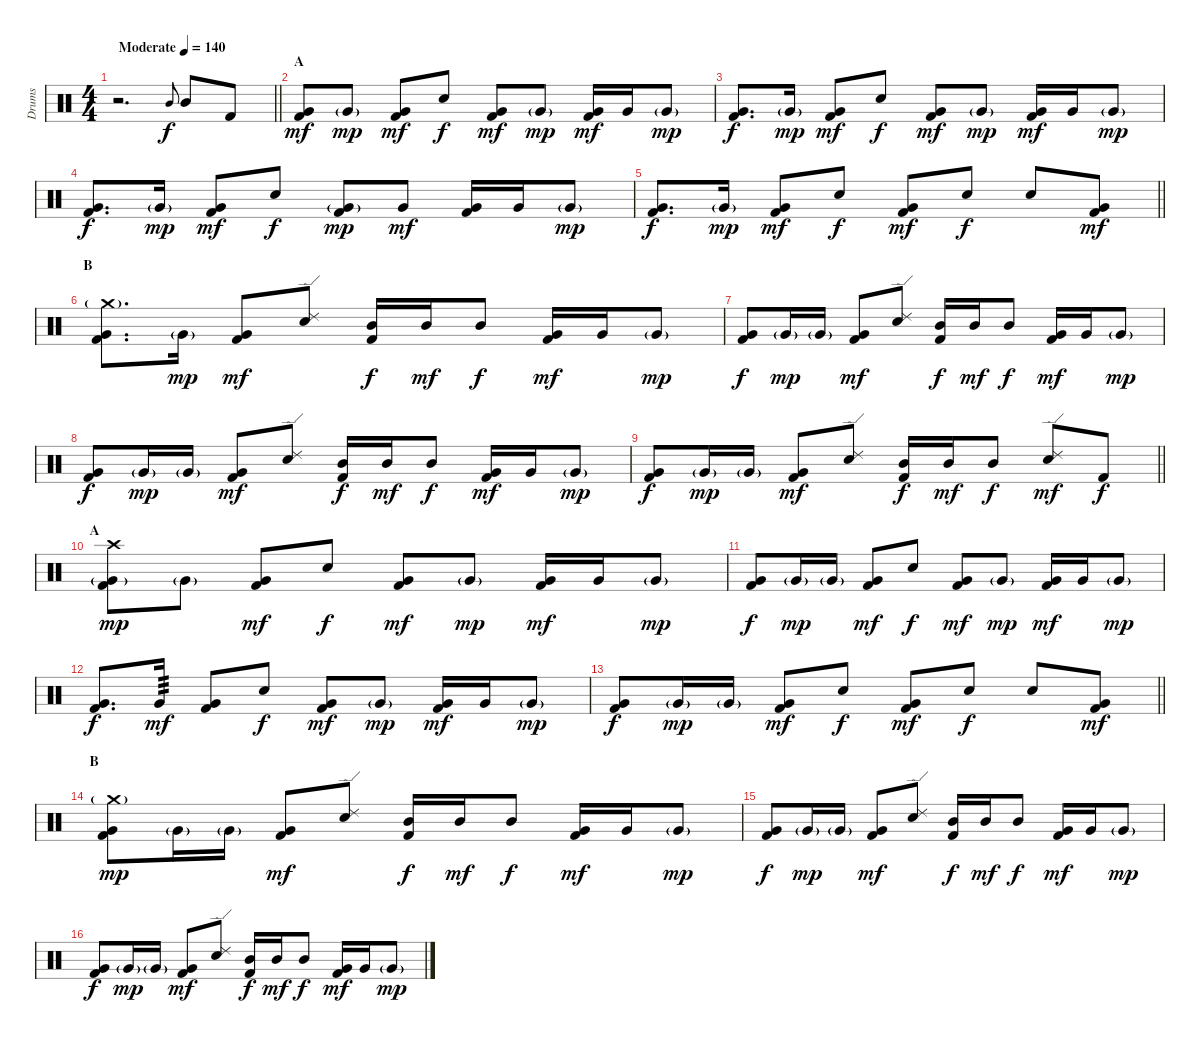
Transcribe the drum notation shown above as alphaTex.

\track ("Drums" "Drums") {instrument percussion}
\staff {score}
\articulation defaults
\ts (4 4)
\tempo (140 "Moderate")
\clef neutral
\barLineRight lightlight
\ks c
r.2{d dy f} "Mid Tom (hit)".8{gr onbeat} "Mid Tom (hit)".8 "Kick (hit) 2".8 |
\section ("" "A")
("Very Low Tom (hit)" "Kick (hit) 2").8{dy mf} "Very Low Tom (hit)"{g}.8{dy mp} ("Very Low Tom (hit)" "Kick (hit) 2").8{dy mf} "Snare (hit) 2".8{dy f} ("Very Low Tom (hit)" "Kick (hit) 2").8{dy mf} "Very Low Tom (hit)"{g}.8{dy mp} ("Very Low Tom (hit)" "Kick (hit) 2").16{dy mf} "Very Low Tom (hit)".16 "Very Low Tom (hit)"{g}.8{dy mp} |
("Very Low Tom (hit)" "Kick (hit) 2").8{d dy f} "Very Low Tom (hit)"{g}.16{dy mp} ("Very Low Tom (hit)" "Kick (hit) 2").8{dy mf} "Snare (hit) 2".8{dy f} ("Very Low Tom (hit)" "Kick (hit) 2").8{dy mf} "Very Low Tom (hit)"{g}.8{dy mp} ("Very Low Tom (hit)" "Kick (hit) 2").16{dy mf} "Very Low Tom (hit)".16 "Very Low Tom (hit)"{g}.8{dy mp} |
("Very Low Tom (hit)" "Kick (hit) 2").8{d dy f} "Very Low Tom (hit)"{g}.16{dy mp} ("Very Low Tom (hit)" "Kick (hit) 2").8{dy mf} "Snare (hit) 2".8{dy f} ("Very Low Tom (hit)"{g} "Kick (hit) 2").8{dy mp} "Very Low Tom (hit)".8{dy mf} ("Very Low Tom (hit)" "Kick (hit) 2").16 "Very Low Tom (hit)".16 "Very Low Tom (hit)"{g}.8{dy mp} |
\barLineRight lightlight
("Very Low Tom (hit)" "Kick (hit) 2").8{d dy f} "Very Low Tom (hit)"{g}.16{dy mp} ("Very Low Tom (hit)" "Kick (hit) 2").8{dy mf} "Snare (hit) 2".8{dy f} ("Very Low Tom (hit)" "Kick (hit) 2").8{dy mf} "Snare (hit) 2".8{dy f} "Snare (hit) 2".8 ("Very Low Tom (hit)" "Kick (hit) 2").8{dy mf} |
\section ("" "B")
("Crash medium (hit)"{g} "Very Low Tom (hit)" "Kick (hit) 2").8{d} "Very Low Tom (hit)"{g}.16{dy mp} ("Very Low Tom (hit)" "Kick (hit) 2").8{dy mf} ("Ride (edge) 2" "Snare (hit) 2").8 ("Mid Tom (hit)" "Kick (hit) 2").16{dy f} "Mid Tom (hit)".16{dy mf} "Mid Tom (hit)".8{dy f} ("Very Low Tom (hit)" "Kick (hit) 2").16{dy mf} "Very Low Tom (hit)".16 "Very Low Tom (hit)"{g}.8{dy mp} |
("Very Low Tom (hit)" "Kick (hit) 2").8{dy f} "Very Low Tom (hit)"{g}.16{dy mp} "Very Low Tom (hit)"{g}.16 ("Very Low Tom (hit)" "Kick (hit) 2").8{dy mf} ("Ride (edge) 2" "Snare (hit) 2").8 ("Mid Tom (hit)" "Kick (hit) 2").16{dy f} "Mid Tom (hit)".16{dy mf} "Mid Tom (hit)".8{dy f} ("Very Low Tom (hit)" "Kick (hit) 2").16{dy mf} "Very Low Tom (hit)".16 "Very Low Tom (hit)"{g}.8{dy mp} |
("Very Low Tom (hit)" "Kick (hit) 2").8{dy f} "Very Low Tom (hit)"{g}.16{dy mp} "Very Low Tom (hit)"{g}.16 ("Very Low Tom (hit)" "Kick (hit) 2").8{dy mf} ("Ride (edge) 2" "Snare (hit) 2").8 ("Mid Tom (hit)" "Kick (hit) 2").16{dy f} "Mid Tom (hit)".16{dy mf} "Mid Tom (hit)".8{dy f} ("Very Low Tom (hit)" "Kick (hit) 2").16{dy mf} "Very Low Tom (hit)".16 "Very Low Tom (hit)"{g}.8{dy mp} |
\barLineRight lightlight
("Very Low Tom (hit)" "Kick (hit) 2").8{dy f} "Very Low Tom (hit)"{g}.16{dy mp} "Very Low Tom (hit)"{g}.16 ("Very Low Tom (hit)" "Kick (hit) 2").8{dy mf} ("Ride (edge) 2" "Snare (hit) 2").8 ("Mid Tom (hit)" "Kick (hit) 2").16{dy f} "Mid Tom (hit)".16{dy mf} "Mid Tom (hit)".8{dy f} ("Ride (edge) 2" "Snare (hit) 2").8{dy mf} "Kick (hit) 2".8{dy f} |
\section ("" "A")
("Crash high (hit)" "Very Low Tom (hit)"{g} "Kick (hit) 2").8{dy mp} "Very Low Tom (hit)"{g}.8 ("Very Low Tom (hit)" "Kick (hit) 2").8{dy mf} "Snare (hit) 2".8{dy f} ("Very Low Tom (hit)" "Kick (hit) 2").8{dy mf} "Very Low Tom (hit)"{g}.8{dy mp} ("Very Low Tom (hit)" "Kick (hit) 2").16{dy mf} "Very Low Tom (hit)".16 "Very Low Tom (hit)"{g}.8{dy mp} |
("Very Low Tom (hit)" "Kick (hit) 2").8{dy f} "Very Low Tom (hit)"{g}.16{dy mp} "Very Low Tom (hit)"{g}.16 ("Very Low Tom (hit)" "Kick (hit) 2").8{dy mf} "Snare (hit) 2".8{dy f} ("Very Low Tom (hit)" "Kick (hit) 2").8{dy mf} "Very Low Tom (hit)"{g}.8{dy mp} ("Very Low Tom (hit)" "Kick (hit) 2").16{dy mf} "Very Low Tom (hit)".16 "Very Low Tom (hit)"{g}.8{dy mp} |
("Very Low Tom (hit)" "Kick (hit) 2").8{d dy f} "Very Low Tom (hit)".16{tp 3 dy mf} ("Very Low Tom (hit)" "Kick (hit) 2").8 "Snare (hit) 2".8{dy f} ("Very Low Tom (hit)" "Kick (hit) 2").8{dy mf} "Very Low Tom (hit)"{g}.8{dy mp} ("Very Low Tom (hit)" "Kick (hit) 2").16{dy mf} "Very Low Tom (hit)".16 "Very Low Tom (hit)"{g}.8{dy mp} |
\barLineRight lightlight
("Very Low Tom (hit)" "Kick (hit) 2").8{dy f} "Very Low Tom (hit)"{g}.16{dy mp} "Very Low Tom (hit)"{g}.16 ("Very Low Tom (hit)" "Kick (hit) 2").8{dy mf} "Snare (hit) 2".8{dy f} ("Very Low Tom (hit)" "Kick (hit) 2").8{dy mf} "Snare (hit) 2".8{dy f} "Snare (hit) 2".8 ("Very Low Tom (hit)" "Kick (hit) 2").8{dy mf} |
\section ("" "B")
("Crash medium (hit)"{g} "Very Low Tom (hit)" "Kick (hit) 2").8{dy mp} "Very Low Tom (hit)"{g}.16 "Very Low Tom (hit)"{g}.16 ("Very Low Tom (hit)" "Kick (hit) 2").8{dy mf} ("Ride (edge) 2" "Snare (hit) 2").8 ("Mid Tom (hit)" "Kick (hit) 2").16{dy f} "Mid Tom (hit)".16{dy mf} "Mid Tom (hit)".8{dy f} ("Very Low Tom (hit)" "Kick (hit) 2").16{dy mf} "Very Low Tom (hit)".16 "Very Low Tom (hit)"{g}.8{dy mp} |
("Very Low Tom (hit)" "Kick (hit) 2").8{dy f} "Very Low Tom (hit)"{g}.16{dy mp} "Very Low Tom (hit)"{g}.16 ("Very Low Tom (hit)" "Kick (hit) 2").8{dy mf} ("Ride (edge) 2" "Snare (hit) 2").8 ("Mid Tom (hit)" "Kick (hit) 2").16{dy f} "Mid Tom (hit)".16{dy mf} "Mid Tom (hit)".8{dy f} ("Very Low Tom (hit)" "Kick (hit) 2").16{dy mf} "Very Low Tom (hit)".16 "Very Low Tom (hit)"{g}.8{dy mp} |
("Very Low Tom (hit)" "Kick (hit) 2").8{dy f} "Very Low Tom (hit)"{g}.16{dy mp} "Very Low Tom (hit)"{g}.16 ("Very Low Tom (hit)" "Kick (hit) 2").8{dy mf} ("Ride (edge) 2" "Snare (hit) 2").8 ("Mid Tom (hit)" "Kick (hit) 2").16{dy f} "Mid Tom (hit)".16{dy mf} "Mid Tom (hit)".8{dy f} ("Very Low Tom (hit)" "Kick (hit) 2").16{dy mf} "Very Low Tom (hit)".16 "Very Low Tom (hit)"{g}.8{dy mp}
